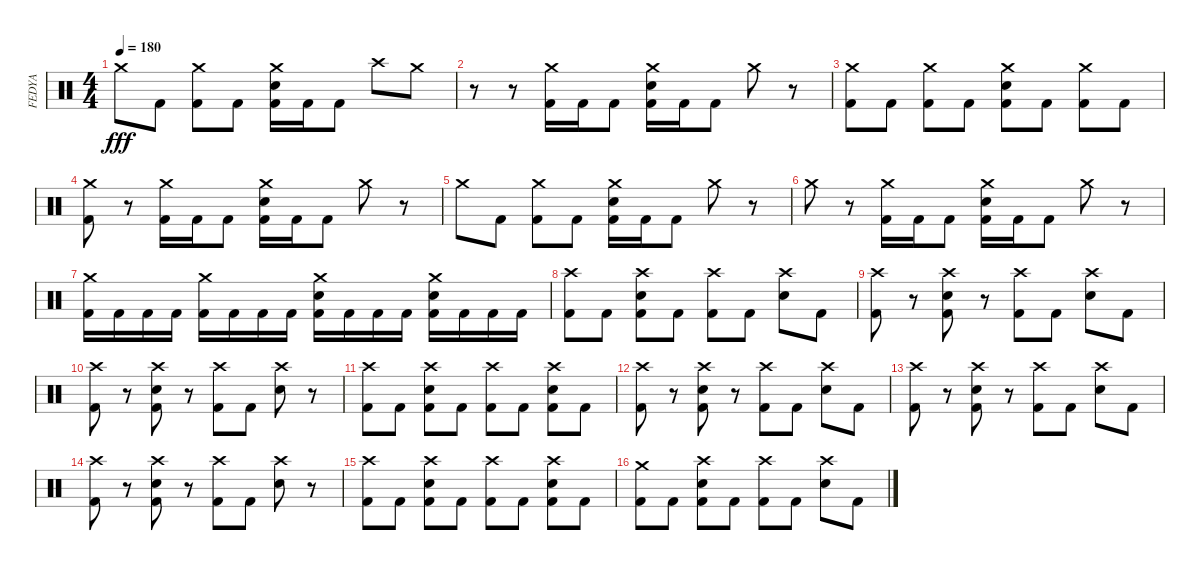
\track ("FEDYA" "FEDYA") {instrument percussion}
\staff {score}
\articulation defaults
\ts (4 4)
\tempo 180
\clef neutral
\ks c "Crash medium (hit)".8{dy fff} "Kick (hit) 2".8
("Crash medium (hit)" "Kick (hit) 2").8 "Kick (hit) 2".8 ("Crash medium (hit)" "Snare (hit) 2" "Kick (hit) 2").16 "Kick (hit) 2".16 "Kick (hit) 2".8 "Crash high (hit)".8 "Crash medium (hit)".8 |
r.8 r.8 ("Crash medium (hit)" "Kick (hit) 2").16 "Kick (hit) 2".16 "Kick (hit) 2".8 ("Crash medium (hit)" "Snare (hit) 2" "Kick (hit) 2").16 "Kick (hit) 2".16 "Kick (hit) 2".8 "Crash medium (hit)".8 r.8 |
("Crash medium (hit)" "Kick (hit) 2").8 "Kick (hit) 2".8 ("Crash medium (hit)" "Kick (hit) 2").8 "Kick (hit) 2".8 ("Crash medium (hit)" "Snare (hit) 2" "Kick (hit) 2").8 "Kick (hit) 2".8 ("Crash medium (hit)" "Kick (hit) 2").8 "Kick (hit) 2".8 |
("Crash medium (hit)" "Kick (hit) 2").8 r.8 ("Crash medium (hit)" "Kick (hit) 2").16 "Kick (hit) 2".16 "Kick (hit) 2".8 ("Crash medium (hit)" "Snare (hit) 2" "Kick (hit) 2").16 "Kick (hit) 2".16 "Kick (hit) 2".8 "Crash medium (hit)".8 r.8 |
"Crash medium (hit)".8 "Kick (hit) 2".8 ("Crash medium (hit)" "Kick (hit) 2").8 "Kick (hit) 2".8 ("Crash medium (hit)" "Snare (hit) 2" "Kick (hit) 2").16 "Kick (hit) 2".16 "Kick (hit) 2".8 "Crash medium (hit)".8 r.8 |
"Crash medium (hit)".8 r.8 ("Crash medium (hit)" "Kick (hit) 2").16 "Kick (hit) 2".16 "Kick (hit) 2".8 ("Crash medium (hit)" "Snare (hit) 2" "Kick (hit) 2").16 "Kick (hit) 2".16 "Kick (hit) 2".8 "Crash medium (hit)".8 r.8 |
("Crash medium (hit)" "Kick (hit) 2").16 "Kick (hit) 2".16 "Kick (hit) 2".16 "Kick (hit) 2".16 ("Crash medium (hit)" "Kick (hit) 2").16 "Kick (hit) 2".16 "Kick (hit) 2".16 "Kick (hit) 2".16 ("Crash medium (hit)" "Snare (hit) 2" "Kick (hit) 2").16 "Kick (hit) 2".16 "Kick (hit) 2".16 "Kick (hit) 2".16 ("Crash medium (hit)" "Snare (hit) 2" "Kick (hit) 2").16 "Kick (hit) 2".16 "Kick (hit) 2".16 "Kick (hit) 2".16 |
("Crash high (hit)" "Kick (hit) 2").8 "Kick (hit) 2".8 ("Crash high (hit)" "Snare (hit) 2" "Kick (hit) 2").8 "Kick (hit) 2".8 ("Crash high (hit)" "Kick (hit) 2").8 "Kick (hit) 2".8 ("Crash high (hit)" "Snare (hit) 2").8 "Kick (hit) 2".8 |
("Crash high (hit)" "Kick (hit) 2").8 r.8 ("Crash high (hit)" "Snare (hit) 2" "Kick (hit) 2").8 r.8 ("Crash high (hit)" "Kick (hit) 2").8 "Kick (hit) 2".8 ("Crash high (hit)" "Snare (hit) 2").8 "Kick (hit) 2".8 |
("Crash high (hit)" "Kick (hit) 2").8 r.8 ("Crash high (hit)" "Snare (hit) 2" "Kick (hit) 2").8 r.8 ("Crash high (hit)" "Kick (hit) 2").8 "Kick (hit) 2".8 ("Crash high (hit)" "Snare (hit) 2").8 r.8 |
("Crash high (hit)" "Kick (hit) 2").8 "Kick (hit) 2".8 ("Crash high (hit)" "Snare (hit) 2" "Kick (hit) 2").8 "Kick (hit) 2".8 ("Crash high (hit)" "Kick (hit) 2").8 "Kick (hit) 2".8 ("Crash high (hit)" "Snare (hit) 2" "Kick (hit) 2").8 "Kick (hit) 2".8 |
("Crash high (hit)" "Kick (hit) 2").8 r.8 ("Crash high (hit)" "Snare (hit) 2" "Kick (hit) 2").8 r.8 ("Crash high (hit)" "Kick (hit) 2").8 "Kick (hit) 2".8 ("Crash high (hit)" "Snare (hit) 2").8 "Kick (hit) 2".8 |
("Crash high (hit)" "Kick (hit) 2").8 r.8 ("Crash high (hit)" "Snare (hit) 2" "Kick (hit) 2").8 r.8 ("Crash high (hit)" "Kick (hit) 2").8 "Kick (hit) 2".8 ("Crash high (hit)" "Snare (hit) 2").8 "Kick (hit) 2".8 |
("Crash high (hit)" "Kick (hit) 2").8 r.8 ("Crash high (hit)" "Snare (hit) 2" "Kick (hit) 2").8 r.8 ("Crash high (hit)" "Kick (hit) 2").8 "Kick (hit) 2".8 ("Crash high (hit)" "Snare (hit) 2").8 r.8 |
("Crash high (hit)" "Kick (hit) 2").8 "Kick (hit) 2".8 ("Crash high (hit)" "Snare (hit) 2" "Kick (hit) 2").8 "Kick (hit) 2".8 ("Crash high (hit)" "Kick (hit) 2").8 "Kick (hit) 2".8 ("Crash high (hit)" "Snare (hit) 2" "Kick (hit) 2").8 "Kick (hit) 2".8 |
("Crash medium (hit)" "Kick (hit) 2").8 "Kick (hit) 2".8 ("Crash high (hit)" "Snare (hit) 2" "Kick (hit) 2").8 "Kick (hit) 2".8 ("Crash high (hit)" "Kick (hit) 2").8 "Kick (hit) 2".8 ("Crash high (hit)" "Snare (hit) 2").8 "Kick (hit) 2".8
